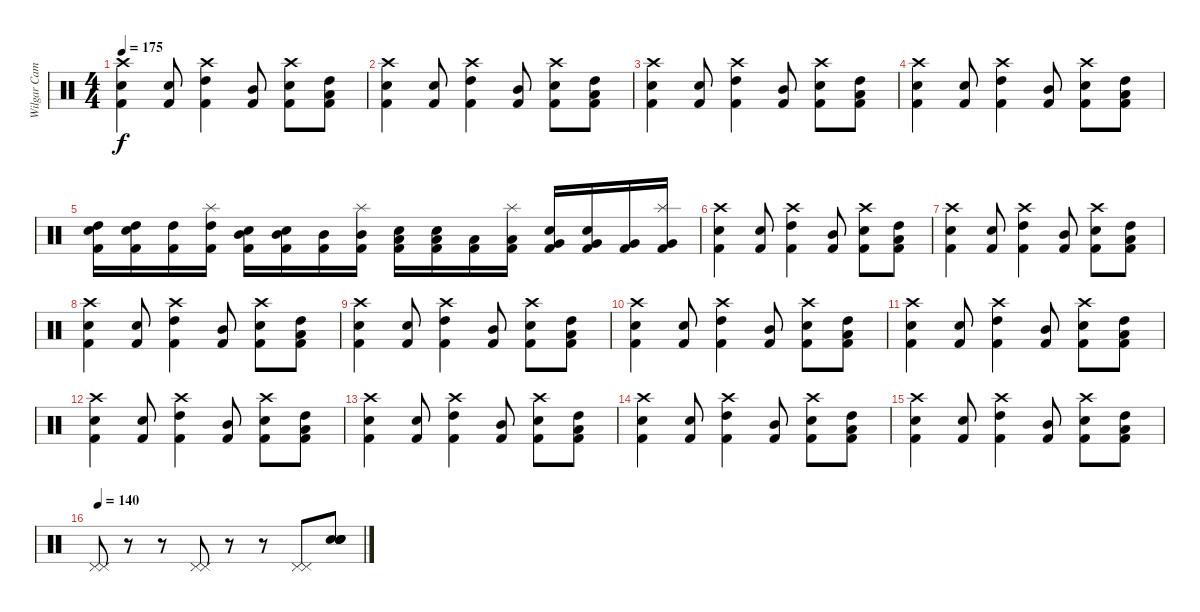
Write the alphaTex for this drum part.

\track ("Wilgar Campbell" "Wilgar Cam") {instrument percussion}
\staff {score}
\articulation defaults
\ts (4 4)
\tempo 175
\clef neutral
\ks c
("Crash high (hit)" "Electric Snare (hit)" "Kick (hit) 2").4{dy f} ("Snare (hit) 2" "Kick (hit) 2").8 ("Crash high (hit)" "High Tom (hit)" "Kick (hit) 2").4 ("Mid Tom (hit)" "Kick (hit) 2").8 ("Crash high (hit)" "Electric Snare (hit)" "Kick (hit) 2").8 ("High Tom (hit)" "Kick (hit) 2" "Low Tom (hit)").8 |
("Crash high (hit)" "Electric Snare (hit)" "Kick (hit) 2").4 ("Snare (hit) 2" "Kick (hit) 2").8 ("Crash high (hit)" "High Tom (hit)" "Kick (hit) 2").4 ("Mid Tom (hit)" "Kick (hit) 2").8 ("Crash high (hit)" "Electric Snare (hit)" "Kick (hit) 2").8 ("High Tom (hit)" "Kick (hit) 2" "Low Tom (hit)").8 |
("Crash high (hit)" "Electric Snare (hit)" "Kick (hit) 2").4 ("Snare (hit) 2" "Kick (hit) 2").8 ("Crash high (hit)" "High Tom (hit)" "Kick (hit) 2").4 ("Mid Tom (hit)" "Kick (hit) 2").8 ("Crash high (hit)" "Electric Snare (hit)" "Kick (hit) 2").8 ("High Tom (hit)" "Kick (hit) 2" "Low Tom (hit)").8 |
("Crash high (hit)" "Electric Snare (hit)" "Kick (hit) 2").4 ("Snare (hit) 2" "Kick (hit) 2").8 ("Crash high (hit)" "High Tom (hit)" "Kick (hit) 2").4 ("Mid Tom (hit)" "Kick (hit) 2").8 ("Crash high (hit)" "Electric Snare (hit)" "Kick (hit) 2").8 ("High Tom (hit)" "Kick (hit) 2" "Low Tom (hit)").8 |
("High Tom (hit)" "Electric Snare (hit)" "Kick (hit) 2").16 ("High Tom (hit)" "Electric Snare (hit)" "Kick (hit) 2").16 ("High Tom (hit)" "Kick (hit) 2").16 ("High Tom (hit)" "Splash (hit)" "Kick (hit) 2").16 ("Mid Tom (hit)" "Electric Snare (hit)" "Kick (hit) 2").16 ("Mid Tom (hit)" "Electric Snare (hit)" "Kick (hit) 2").16 ("Mid Tom (hit)" "Kick (hit) 2").16 ("Mid Tom (hit)" "Splash (hit)" "Kick (hit) 2").16 ("Low Tom (hit)" "Electric Snare (hit)" "Kick (hit) 2").16 ("Low Tom (hit)" "Electric Snare (hit)" "Kick (hit) 2").16 ("Low Tom (hit)" "Kick (hit) 2").16 ("Low Tom (hit)" "Splash (hit)" "Kick (hit) 2").16 ("Very Low Tom (hit)" "Electric Snare (hit)" "Kick (hit) 2").16 ("Very Low Tom (hit)" "Electric Snare (hit)" "Kick (hit) 2").16 ("Very Low Tom (hit)" "Kick (hit) 2").16 ("Very Low Tom (hit)" "Splash (hit)" "Kick (hit) 2").16 |
("Crash high (hit)" "Electric Snare (hit)" "Kick (hit) 2").4 ("Snare (hit) 2" "Kick (hit) 2").8 ("Crash high (hit)" "High Tom (hit)" "Kick (hit) 2").4 ("Mid Tom (hit)" "Kick (hit) 2").8 ("Crash high (hit)" "Electric Snare (hit)" "Kick (hit) 2").8 ("High Tom (hit)" "Kick (hit) 2" "Low Tom (hit)").8 |
("Crash high (hit)" "Electric Snare (hit)" "Kick (hit) 2").4 ("Snare (hit) 2" "Kick (hit) 2").8 ("Crash high (hit)" "High Tom (hit)" "Kick (hit) 2").4 ("Mid Tom (hit)" "Kick (hit) 2").8 ("Crash high (hit)" "Electric Snare (hit)" "Kick (hit) 2").8 ("High Tom (hit)" "Kick (hit) 2" "Low Tom (hit)").8 |
("Crash high (hit)" "Electric Snare (hit)" "Kick (hit) 2").4 ("Snare (hit) 2" "Kick (hit) 2").8 ("Crash high (hit)" "High Tom (hit)" "Kick (hit) 2").4 ("Mid Tom (hit)" "Kick (hit) 2").8 ("Crash high (hit)" "Electric Snare (hit)" "Kick (hit) 2").8 ("High Tom (hit)" "Kick (hit) 2" "Low Tom (hit)").8 |
("Crash high (hit)" "Electric Snare (hit)" "Kick (hit) 2").4 ("Snare (hit) 2" "Kick (hit) 2").8 ("Crash high (hit)" "High Tom (hit)" "Kick (hit) 2").4 ("Mid Tom (hit)" "Kick (hit) 2").8 ("Crash high (hit)" "Electric Snare (hit)" "Kick (hit) 2").8 ("High Tom (hit)" "Kick (hit) 2" "Low Tom (hit)").8 |
("Crash high (hit)" "Electric Snare (hit)" "Kick (hit) 2").4 ("Snare (hit) 2" "Kick (hit) 2").8 ("Crash high (hit)" "High Tom (hit)" "Kick (hit) 2").4 ("Mid Tom (hit)" "Kick (hit) 2").8 ("Crash high (hit)" "Electric Snare (hit)" "Kick (hit) 2").8 ("High Tom (hit)" "Kick (hit) 2" "Low Tom (hit)").8 |
("Crash high (hit)" "Electric Snare (hit)" "Kick (hit) 2").4 ("Snare (hit) 2" "Kick (hit) 2").8 ("Crash high (hit)" "High Tom (hit)" "Kick (hit) 2").4 ("Mid Tom (hit)" "Kick (hit) 2").8 ("Crash high (hit)" "Electric Snare (hit)" "Kick (hit) 2").8 ("High Tom (hit)" "Kick (hit) 2" "Low Tom (hit)").8 |
("Crash high (hit)" "Electric Snare (hit)" "Kick (hit) 2").4 ("Snare (hit) 2" "Kick (hit) 2").8 ("Crash high (hit)" "High Tom (hit)" "Kick (hit) 2").4 ("Mid Tom (hit)" "Kick (hit) 2").8 ("Crash high (hit)" "Electric Snare (hit)" "Kick (hit) 2").8 ("High Tom (hit)" "Kick (hit) 2" "Low Tom (hit)").8 |
("Crash high (hit)" "Electric Snare (hit)" "Kick (hit) 2").4 ("Snare (hit) 2" "Kick (hit) 2").8 ("Crash high (hit)" "High Tom (hit)" "Kick (hit) 2").4 ("Mid Tom (hit)" "Kick (hit) 2").8 ("Crash high (hit)" "Electric Snare (hit)" "Kick (hit) 2").8 ("High Tom (hit)" "Kick (hit) 2" "Low Tom (hit)").8 |
("Crash high (hit)" "Electric Snare (hit)" "Kick (hit) 2").4 ("Snare (hit) 2" "Kick (hit) 2").8 ("Crash high (hit)" "High Tom (hit)" "Kick (hit) 2").4 ("Mid Tom (hit)" "Kick (hit) 2").8 ("Crash high (hit)" "Electric Snare (hit)" "Kick (hit) 2").8 ("High Tom (hit)" "Kick (hit) 2" "Low Tom (hit)").8 |
("Crash high (hit)" "Electric Snare (hit)" "Kick (hit) 2").4 ("Snare (hit) 2" "Kick (hit) 2").8 ("Crash high (hit)" "High Tom (hit)" "Kick (hit) 2").4 ("Mid Tom (hit)" "Kick (hit) 2").8 ("Crash high (hit)" "Electric Snare (hit)" "Kick (hit) 2").8 ("High Tom (hit)" "Kick (hit) 2" "Low Tom (hit)").8 |
\tempo 140
("Pedal Hi-Hat (hit)" "Pedal Hi-Hat (hit)").8 r.8 r.8 ("Pedal Hi-Hat (hit)" "Pedal Hi-Hat (hit)").8 r.8 r.8 ("Pedal Hi-Hat (hit)" "Pedal Hi-Hat (hit)").8 ("Electric Snare (hit)" "Electric Snare (hit)" "Electric Snare (hit)" "Snare (hit) 2").8
